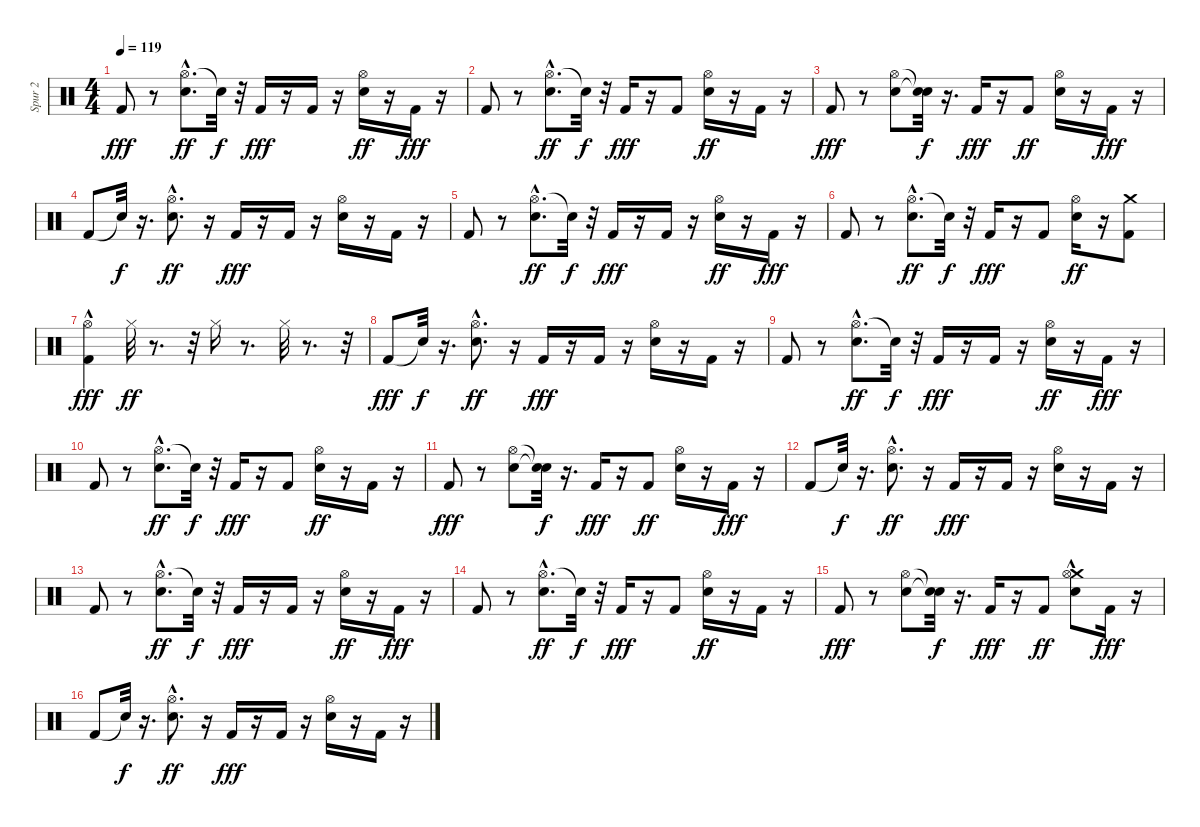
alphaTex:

\track ("Spur 2" "Spur 2") {instrument percussion}
\staff {score}
\articulation defaults
\ts (4 4)
\tempo 119
\clef neutral
\ks c "Kick (hit) 2".8{dy fff}
r.8 ("Hi-Hat (open)"{hac} "Electric Snare (hit)").8{d dy ff} "Snare (hit)"{t}.32{dy f} r.32 "Kick (hit) 2".16{dy fff} r.16 "Kick (hit) 2".16 r.16 ("Hi-Hat (open)" "Electric Snare (hit)").16{dy ff} r.16 "Kick (hit) 2".16{dy fff} r.16 |
"Kick (hit) 2".8 r.8 ("Hi-Hat (open)"{hac} "Electric Snare (hit)").8{d dy ff} "Snare (hit)"{t}.32{dy f} r.32 "Kick (hit) 2".16{dy fff} r.16 "Kick (hit) 2".8 ("Hi-Hat (open)" "Electric Snare (hit)").16{dy ff} r.16 "Kick (hit) 2".16 r.16 |
"Kick (hit) 2".8{dy fff} r.8 ("Hi-Hat (open)" "Electric Snare (hit)").8 ("Snare (hit)"{t} "Snare (hit)"{t}).32{dy f} r.16{d} "Kick (hit) 2".16{dy fff} r.16 "Kick (hit) 2".8{dy ff} ("Hi-Hat (open)" "Electric Snare (hit)").16 r.16 "Kick (hit) 2".16{dy fff} r.16 |
"Kick (hit) 2".8 "Snare (hit)"{t}.32{dy f} r.16{d} ("Hi-Hat (open)"{hac} "Electric Snare (hit)").8{d dy ff} r.16 "Kick (hit) 2".16{dy fff} r.16 "Kick (hit) 2".16 r.16 ("Hi-Hat (open)" "Electric Snare (hit)").16 r.16 "Kick (hit) 2".16 r.16 |
"Kick (hit) 2".8 r.8 ("Hi-Hat (open)"{hac} "Electric Snare (hit)").8{d dy ff} "Snare (hit)"{t}.32{dy f} r.32 "Kick (hit) 2".16{dy fff} r.16 "Kick (hit) 2".16 r.16 ("Hi-Hat (open)" "Electric Snare (hit)").16{dy ff} r.16 "Kick (hit) 2".16{dy fff} r.16 |
"Kick (hit) 2".8 r.8 ("Hi-Hat (open)"{hac} "Electric Snare (hit)").8{d dy ff} "Snare (hit)"{t}.32{dy f} r.32 "Kick (hit) 2".16{dy fff} r.16 "Kick (hit) 2".8 ("Hi-Hat (open)" "Electric Snare (hit)").16{dy ff} r.16 ("Crash medium (hit)" "Kick (hit) 2").8 |
("Hi-Hat (open)"{hac} "Kick (hit) 2"{hac}).4{dy fff} "Hi-Hat (closed)".32{dy ff} r.8{d} r.32 "Hi-Hat (closed)".16 r.8{d} "Hi-Hat (closed)".32 r.8{d} r.32 |
"Kick (hit) 2".8{dy fff} "Snare (hit)"{t}.32{dy f} r.16{d} ("Hi-Hat (open)"{hac} "Electric Snare (hit)").8{d dy ff} r.16 "Kick (hit) 2".16{dy fff} r.16 "Kick (hit) 2".16 r.16 ("Hi-Hat (open)" "Electric Snare (hit)").16 r.16 "Kick (hit) 2".16 r.16 |
"Kick (hit) 2".8 r.8 ("Hi-Hat (open)"{hac} "Electric Snare (hit)").8{d dy ff} "Snare (hit)"{t}.32{dy f} r.32 "Kick (hit) 2".16{dy fff} r.16 "Kick (hit) 2".16 r.16 ("Hi-Hat (open)" "Electric Snare (hit)").16{dy ff} r.16 "Kick (hit) 2".16{dy fff} r.16 |
"Kick (hit) 2".8 r.8 ("Hi-Hat (open)"{hac} "Electric Snare (hit)").8{d dy ff} "Snare (hit)"{t}.32{dy f} r.32 "Kick (hit) 2".16{dy fff} r.16 "Kick (hit) 2".8 ("Hi-Hat (open)" "Electric Snare (hit)").16{dy ff} r.16 "Kick (hit) 2".16 r.16 |
"Kick (hit) 2".8{dy fff} r.8 ("Hi-Hat (open)" "Electric Snare (hit)").8 ("Snare (hit)"{t} "Snare (hit)"{t}).32{dy f} r.16{d} "Kick (hit) 2".16{dy fff} r.16 "Kick (hit) 2".8{dy ff} ("Hi-Hat (open)" "Electric Snare (hit)").16 r.16 "Kick (hit) 2".16{dy fff} r.16 |
"Kick (hit) 2".8 "Snare (hit)"{t}.32{dy f} r.16{d} ("Hi-Hat (open)"{hac} "Electric Snare (hit)").8{d dy ff} r.16 "Kick (hit) 2".16{dy fff} r.16 "Kick (hit) 2".16 r.16 ("Hi-Hat (open)" "Electric Snare (hit)").16 r.16 "Kick (hit) 2".16 r.16 |
"Kick (hit) 2".8 r.8 ("Hi-Hat (open)"{hac} "Electric Snare (hit)").8{d dy ff} "Snare (hit)"{t}.32{dy f} r.32 "Kick (hit) 2".16{dy fff} r.16 "Kick (hit) 2".16 r.16 ("Hi-Hat (open)" "Electric Snare (hit)").16{dy ff} r.16 "Kick (hit) 2".16{dy fff} r.16 |
"Kick (hit) 2".8 r.8 ("Hi-Hat (open)"{hac} "Electric Snare (hit)").8{d dy ff} "Snare (hit)"{t}.32{dy f} r.32 "Kick (hit) 2".16{dy fff} r.16 "Kick (hit) 2".8 ("Hi-Hat (open)" "Electric Snare (hit)").16{dy ff} r.16 "Kick (hit) 2".16 r.16 |
"Kick (hit) 2".8{dy fff} r.8 ("Hi-Hat (open)" "Electric Snare (hit)").8 ("Snare (hit)"{t} "Snare (hit)"{t}).32{dy f} r.16{d} "Kick (hit) 2".16{dy fff} r.16 "Kick (hit) 2".8{dy ff} ("Crash medium (hit)"{hac} "Hi-Hat (open)" "Electric Snare (hit)").8 "Kick (hit) 2".16{dy fff} r.16 |
"Kick (hit) 2".8 "Snare (hit)"{t}.32{dy f} r.16{d} ("Hi-Hat (open)"{hac} "Electric Snare (hit)").8{d dy ff} r.16 "Kick (hit) 2".16{dy fff} r.16 "Kick (hit) 2".16 r.16 ("Hi-Hat (open)" "Electric Snare (hit)").16 r.16 "Kick (hit) 2".16 r.16
